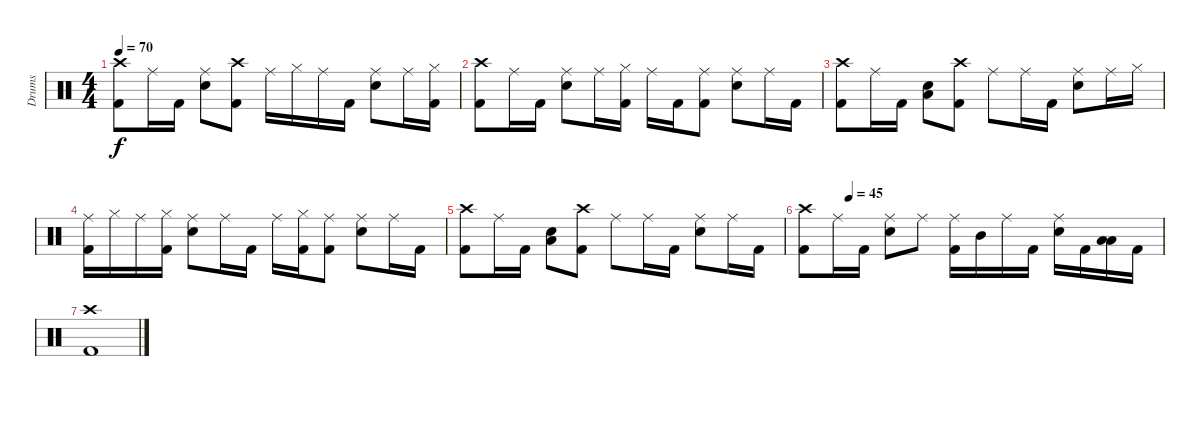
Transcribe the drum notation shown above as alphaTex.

\track ("Drums" "Drums") {instrument percussion}
\staff {score}
\articulation defaults
\ts (4 4)
\tempo 70
\clef neutral
\ks c
("Crash high (hit)" "Kick (hit) 2").8{dy f} "Ride (middle)".16 "Kick (hit) 2".16 ("Ride (middle)" "Electric Snare (hit)").8 ("Crash high (hit)" "Kick (hit) 2").8 "Ride (middle)".16 "Hi-Hat (closed)".16 "Ride (middle)".16 "Kick (hit) 2".16 ("Ride (middle)" "Electric Snare (hit)").8 "Ride (middle)".16 ("Hi-Hat (closed)" "Kick (hit) 2").16 |
("Crash high (hit)" "Kick (hit) 2").8 "Ride (middle)".16 "Kick (hit) 2".16 ("Ride (middle)" "Electric Snare (hit)").8 "Ride (middle)".16 ("Hi-Hat (closed)" "Kick (hit) 2").16 "Ride (middle)".16 "Kick (hit) 2".16 ("Ride (middle)" "Kick (hit) 2").8 ("Ride (middle)" "Electric Snare (hit)").8 "Ride (middle)".16 "Kick (hit) 2".16 |
("Crash high (hit)" "Kick (hit) 2").8 "Ride (middle)".16 "Kick (hit) 2".16 ("Electric Snare (hit)" "Low Floor Tom (hit)").8 ("Crash high (hit)" "Kick (hit) 2").8 "Ride (middle)".8 "Ride (middle)".16 "Kick (hit) 2".16 ("Ride (middle)" "Electric Snare (hit)").8 "Ride (middle)".16 "Hi-Hat (closed)".16 |
("Ride (middle)" "Kick (hit) 2").16 "Hi-Hat (closed)".16 "Ride (middle)".16 ("Hi-Hat (closed)" "Kick (hit) 2").16 ("Ride (middle)" "Electric Snare (hit)").8 "Ride (middle)".16 "Kick (hit) 2".16 "Ride (middle)".16 ("Hi-Hat (closed)" "Kick (hit) 2").16 ("Ride (middle)" "Kick (hit) 2").8 ("Ride (middle)" "Electric Snare (hit)").8 "Ride (middle)".16 "Kick (hit) 2".16 |
("Crash high (hit)" "Kick (hit) 2").8 "Ride (middle)".16 "Kick (hit) 2".16 ("Electric Snare (hit)" "Low Floor Tom (hit)").8 ("Crash high (hit)" "Kick (hit) 2").8 "Ride (middle)".8 "Ride (middle)".16 "Kick (hit) 2".16 ("Ride (middle)" "Electric Snare (hit)").8 "Ride (middle)".16 "Kick (hit) 2".16 |
\tempo (45 0.125)
("Crash high (hit)" "Kick (hit) 2").8 "Ride (middle)".16 "Kick (hit) 2".16 ("Ride (middle)" "Electric Snare (hit)").8 "Ride (middle)".8 ("Ride (middle)" "Kick (hit) 2").16 "Mid Tom (hit)".16 "Ride (middle)".16 "Kick (hit) 2".16 ("Ride (middle)" "Electric Snare (hit)").16 "Kick (hit) 2".16 ("Low Tom (hit)" "Low Floor Tom (hit)").16 "Kick (hit) 2".16 |
("Crash high (hit)" "Kick (hit) 2").1
